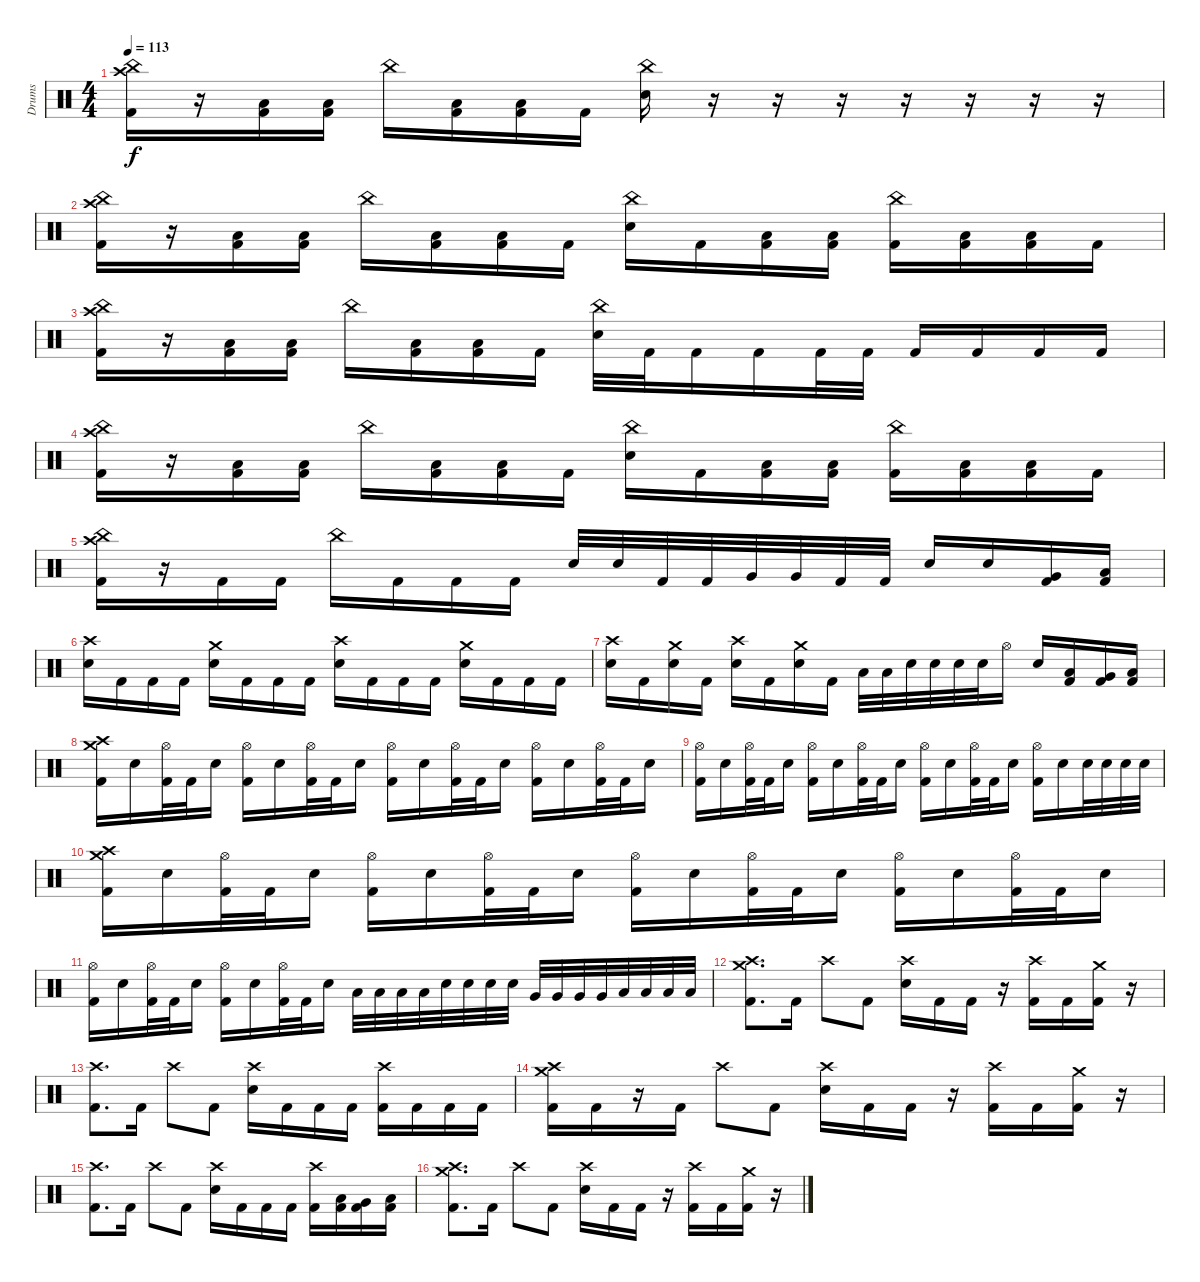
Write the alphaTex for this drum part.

\track ("Drums" "Drums") {instrument percussion}
\staff {score}
\articulation defaults
\ts (4 4)
\tempo 113
\clef neutral
\ks c
("China (hit)" "Crash high (hit)" "Kick (hit) 2").16{dy f} r.16 ("Low Floor Tom (hit)" "Kick (hit) 2").16 ("Low Floor Tom (hit)" "Kick (hit) 2").16 "China (hit)".16 ("Low Floor Tom (hit)" "Kick (hit) 2").16 ("Low Floor Tom (hit)" "Kick (hit) 2").16 "Kick (hit) 2".16 ("China (hit)" "Snare (hit) 2").16 r.16 r.16 r.16 r.16 r.16 r.16 r.16 |
("China (hit)" "Crash high (hit)" "Kick (hit) 2").16 r.16 ("Low Floor Tom (hit)" "Kick (hit) 2").16 ("Low Floor Tom (hit)" "Kick (hit) 2").16 "China (hit)".16 ("Low Floor Tom (hit)" "Kick (hit) 2").16 ("Low Floor Tom (hit)" "Kick (hit) 2").16 "Kick (hit) 2".16 ("China (hit)" "Snare (hit) 2").16 "Kick (hit) 2".16 ("Low Floor Tom (hit)" "Kick (hit) 2").16 ("Low Floor Tom (hit)" "Kick (hit) 2").16 ("China (hit)" "Kick (hit) 2").16 ("Low Floor Tom (hit)" "Kick (hit) 2").16 ("Low Floor Tom (hit)" "Kick (hit) 2").16 "Kick (hit) 2".16 |
("China (hit)" "Crash high (hit)" "Kick (hit) 2").16 r.16 ("Low Floor Tom (hit)" "Kick (hit) 2").16 ("Low Floor Tom (hit)" "Kick (hit) 2").16 "China (hit)".16 ("Low Floor Tom (hit)" "Kick (hit) 2").16 ("Low Floor Tom (hit)" "Kick (hit) 2").16 "Kick (hit) 2".16 ("China (hit)" "Snare (hit) 2").32 "Kick (hit) 2".32 "Kick (hit) 2".16 "Kick (hit) 2".16 "Kick (hit) 2".32 "Kick (hit) 2".32 "Kick (hit) 2".16 "Kick (hit) 2".16 "Kick (hit) 2".16 "Kick (hit) 2".16 |
("China (hit)" "Crash high (hit)" "Kick (hit) 2").16 r.16 ("Low Floor Tom (hit)" "Kick (hit) 2").16 ("Low Floor Tom (hit)" "Kick (hit) 2").16 "China (hit)".16 ("Low Floor Tom (hit)" "Kick (hit) 2").16 ("Low Floor Tom (hit)" "Kick (hit) 2").16 "Kick (hit) 2".16 ("China (hit)" "Snare (hit) 2").16 "Kick (hit) 2".16 ("Low Floor Tom (hit)" "Kick (hit) 2").16 ("Low Floor Tom (hit)" "Kick (hit) 2").16 ("China (hit)" "Kick (hit) 2").16 ("Low Floor Tom (hit)" "Kick (hit) 2").16 ("Low Floor Tom (hit)" "Kick (hit) 2").16 "Kick (hit) 2".16 |
("China (hit)" "Crash high (hit)" "Kick (hit) 2").16 r.16 "Kick (hit) 2".16 "Kick (hit) 2".16 "China (hit)".16 "Kick (hit) 2".16 "Kick (hit) 2".16 "Kick (hit) 2".16 "Snare (hit) 2".32 "Snare (hit) 2".32 "Kick (hit) 2".32 "Kick (hit) 2".32 "Very Low Tom (hit)".32 "Very Low Tom (hit)".32 "Kick (hit) 2".32 "Kick (hit) 2".32 "Snare (hit) 2".16 "Snare (hit) 2".16 ("Very Low Tom (hit)" "Kick (hit) 2").16 ("Low Floor Tom (hit)" "Kick (hit) 2").16 |
("Crash high (hit)" "Snare (hit) 2").16 "Kick (hit) 2".16 "Kick (hit) 2".16 "Kick (hit) 2".16 ("Crash medium (hit)" "Snare (hit) 2").16 "Kick (hit) 2".16 "Kick (hit) 2".16 "Kick (hit) 2".16 ("Crash high (hit)" "Snare (hit) 2").16 "Kick (hit) 2".16 "Kick (hit) 2".16 "Kick (hit) 2".16 ("Crash medium (hit)" "Snare (hit) 2").16 "Kick (hit) 2".16 "Kick (hit) 2".16 "Kick (hit) 2".16 |
("Crash high (hit)" "Snare (hit) 2").16 "Kick (hit) 2".16 ("Crash medium (hit)" "Snare (hit) 2").16 "Kick (hit) 2".16 ("Crash high (hit)" "Snare (hit) 2").16 "Kick (hit) 2".16 ("Crash medium (hit)" "Snare (hit) 2").16 "Kick (hit) 2".16 "Low Tom (hit)".32 "Low Tom (hit)".32 "Snare (hit) 2".32 "Snare (hit) 2".32 "Snare (hit) 2".32 "Snare (hit) 2".32 "Hi-Hat (open)".16 "Snare (hit) 2".16 ("Low Tom (hit)" "Kick (hit) 2").16 ("Very Low Tom (hit)" "Kick (hit) 2").16 ("Low Floor Tom (hit)" "Kick (hit) 2").16 |
("Crash high (hit)" "Crash medium (hit)" "Kick (hit) 2").16 "Snare (hit) 2".16 ("Hi-Hat (open)" "Kick (hit) 2").32 "Kick (hit) 2".32 "Snare (hit) 2".16 ("Hi-Hat (open)" "Kick (hit) 2").16 "Snare (hit) 2".16 ("Hi-Hat (open)" "Kick (hit) 2").32 "Kick (hit) 2".32 "Snare (hit) 2".16 ("Hi-Hat (open)" "Kick (hit) 2").16 "Snare (hit) 2".16 ("Hi-Hat (open)" "Kick (hit) 2").32 "Kick (hit) 2".32 "Snare (hit) 2".16 ("Hi-Hat (open)" "Kick (hit) 2").16 "Snare (hit) 2".16 ("Hi-Hat (open)" "Kick (hit) 2").32 "Kick (hit) 2".32 "Snare (hit) 2".16 |
("Hi-Hat (open)" "Kick (hit) 2").16 "Snare (hit) 2".16 ("Hi-Hat (open)" "Kick (hit) 2").32 "Kick (hit) 2".32 "Snare (hit) 2".16 ("Hi-Hat (open)" "Kick (hit) 2").16 "Snare (hit) 2".16 ("Hi-Hat (open)" "Kick (hit) 2").32 "Kick (hit) 2".32 "Snare (hit) 2".16 ("Hi-Hat (open)" "Kick (hit) 2").16 "Snare (hit) 2".16 ("Hi-Hat (open)" "Kick (hit) 2").32 "Kick (hit) 2".32 "Snare (hit) 2".16 ("Hi-Hat (open)" "Kick (hit) 2").16 "Snare (hit) 2".16 "Snare (hit) 2".32 "Snare (hit) 2".32 "Snare (hit) 2".32 "Snare (hit) 2".32 |
("Crash high (hit)" "Crash medium (hit)" "Kick (hit) 2").16 "Snare (hit) 2".16 ("Hi-Hat (open)" "Kick (hit) 2").32 "Kick (hit) 2".32 "Snare (hit) 2".16 ("Hi-Hat (open)" "Kick (hit) 2").16 "Snare (hit) 2".16 ("Hi-Hat (open)" "Kick (hit) 2").32 "Kick (hit) 2".32 "Snare (hit) 2".16 ("Hi-Hat (open)" "Kick (hit) 2").16 "Snare (hit) 2".16 ("Hi-Hat (open)" "Kick (hit) 2").32 "Kick (hit) 2".32 "Snare (hit) 2".16 ("Hi-Hat (open)" "Kick (hit) 2").16 "Snare (hit) 2".16 ("Hi-Hat (open)" "Kick (hit) 2").32 "Kick (hit) 2".32 "Snare (hit) 2".16 |
("Hi-Hat (open)" "Kick (hit) 2").16 "Snare (hit) 2".16 ("Hi-Hat (open)" "Kick (hit) 2").32 "Kick (hit) 2".32 "Snare (hit) 2".16 ("Hi-Hat (open)" "Kick (hit) 2").16 "Snare (hit) 2".16 ("Hi-Hat (open)" "Kick (hit) 2").32 "Kick (hit) 2".32 "Snare (hit) 2".16 "Low Tom (hit)".32 "Low Tom (hit)".32 "Low Tom (hit)".32 "Low Tom (hit)".32 "Snare (hit) 2".32 "Snare (hit) 2".32 "Snare (hit) 2".32 "Snare (hit) 2".32 "Very Low Tom (hit)".32 "Very Low Tom (hit)".32 "Very Low Tom (hit)".32 "Very Low Tom (hit)".32 "Low Floor Tom (hit)".32 "Low Floor Tom (hit)".32 "Low Floor Tom (hit)".32 "Low Floor Tom (hit)".32 |
("Crash medium (hit)" "Crash high (hit)" "Kick (hit) 2").8{d} "Kick (hit) 2".16 "Crash high (hit)".8 "Kick (hit) 2".8 ("Crash high (hit)" "Snare (hit) 2").16 "Kick (hit) 2".16 "Kick (hit) 2".16 r.16 ("Crash high (hit)" "Kick (hit) 2").16 "Kick (hit) 2".16 ("Crash medium (hit)" "Kick (hit) 2").16 r.16 |
("Crash high (hit)" "Kick (hit) 2").8{d} "Kick (hit) 2".16 "Crash high (hit)".8 "Kick (hit) 2".8 ("Crash high (hit)" "Snare (hit) 2").16 "Kick (hit) 2".16 "Kick (hit) 2".16 "Kick (hit) 2".16 ("Crash high (hit)" "Kick (hit) 2").16 "Kick (hit) 2".16 "Kick (hit) 2".16 "Kick (hit) 2".16 |
("Crash high (hit)" "Crash medium (hit)" "Kick (hit) 2").16 "Kick (hit) 2".16 r.16 "Kick (hit) 2".16 "Crash high (hit)".8 "Kick (hit) 2".8 ("Crash high (hit)" "Snare (hit) 2").16 "Kick (hit) 2".16 "Kick (hit) 2".16 r.16 ("Crash high (hit)" "Kick (hit) 2").16 "Kick (hit) 2".16 ("Crash medium (hit)" "Kick (hit) 2").16 r.16 |
("Crash high (hit)" "Kick (hit) 2").8{d} "Kick (hit) 2".16 "Crash high (hit)".8 "Kick (hit) 2".8 ("Crash high (hit)" "Snare (hit) 2").16 "Kick (hit) 2".16 "Kick (hit) 2".16 "Kick (hit) 2".16 ("Crash high (hit)" "Kick (hit) 2").16 ("Low Tom (hit)" "Kick (hit) 2").16 ("Very Low Tom (hit)" "Kick (hit) 2").16 ("Low Floor Tom (hit)" "Kick (hit) 2").16 |
("Crash medium (hit)" "Crash high (hit)" "Kick (hit) 2").8{d} "Kick (hit) 2".16 "Crash high (hit)".8 "Kick (hit) 2".8 ("Crash high (hit)" "Snare (hit) 2").16 "Kick (hit) 2".16 "Kick (hit) 2".16 r.16 ("Crash high (hit)" "Kick (hit) 2").16 "Kick (hit) 2".16 ("Crash medium (hit)" "Kick (hit) 2").16 r.16
